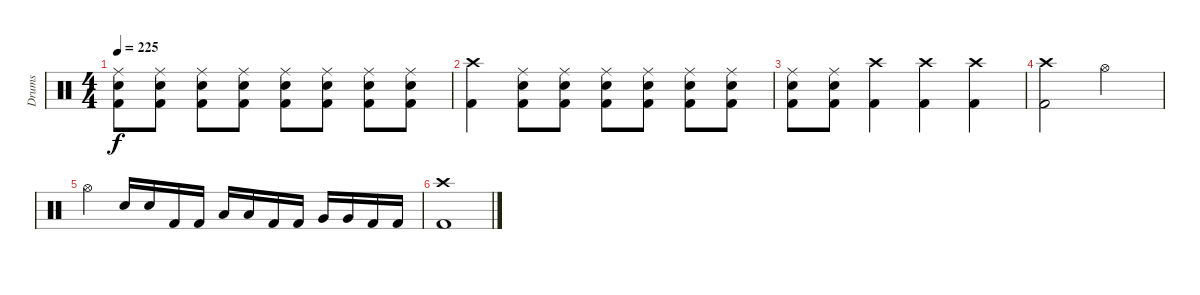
\track ("Drums" "Drums") {instrument percussion}
\staff {score}
\articulation defaults
\ts (4 4)
\tempo 225
\clef neutral
\ks c
("Ride (middle)" "Electric Snare (hit)" "Kick (hit) 2").8{dy f} ("Ride (middle)" "Electric Snare (hit)" "Kick (hit) 2").8 ("Ride (middle)" "Electric Snare (hit)" "Kick (hit) 2").8 ("Ride (middle)" "Electric Snare (hit)" "Kick (hit) 2").8 ("Ride (middle)" "Electric Snare (hit)" "Kick (hit) 2").8 ("Ride (middle)" "Electric Snare (hit)" "Kick (hit) 2").8 ("Ride (middle)" "Electric Snare (hit)" "Kick (hit) 2").8 ("Ride (middle)" "Electric Snare (hit)" "Kick (hit) 2").8 |
("Crash high (hit)" "Kick (hit) 2").4 ("Ride (middle)" "Electric Snare (hit)" "Kick (hit) 2").8 ("Ride (middle)" "Electric Snare (hit)" "Kick (hit) 2").8 ("Ride (middle)" "Electric Snare (hit)" "Kick (hit) 2").8 ("Ride (middle)" "Electric Snare (hit)" "Kick (hit) 2").8 ("Ride (middle)" "Electric Snare (hit)" "Kick (hit) 2").8 ("Ride (middle)" "Electric Snare (hit)" "Kick (hit) 2").8 |
("Ride (middle)" "Electric Snare (hit)" "Kick (hit) 2").8 ("Ride (middle)" "Electric Snare (hit)" "Kick (hit) 2").8 ("Crash high (hit)" "Kick (hit) 2").4 ("Crash high (hit)" "Kick (hit) 2").4 ("Crash high (hit)" "Kick (hit) 2").4 |
("Crash high (hit)" "Kick (hit) 2").2 "Hi-Hat (open)".2 |
"Hi-Hat (open)".4 "Electric Snare (hit)".16 "Electric Snare (hit)".16 "Kick (hit) 2".16 "Kick (hit) 2".16 "Low Tom (hit)".16 "Low Tom (hit)".16 "Kick (hit) 2".16 "Kick (hit) 2".16 "Very Low Tom (hit)".16 "Very Low Tom (hit)".16 "Kick (hit) 2".16 "Kick (hit) 2".16 |
("Crash high (hit)" "Kick (hit) 2").1
